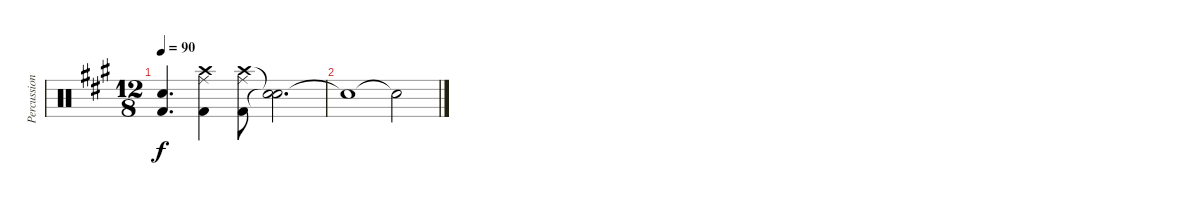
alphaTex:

\track ("Percussion" "Percussion") {instrument percussion}
\staff {score}
\articulation defaults
\ts (12 8)
\tempo 90
\clef neutral
\ks a
("Snare (hit) 2" "Kick (hit) 2").4{d dy f} ("Ride (middle)" "Kick (hit) 2" "Crash high (hit)").4 ("Crash high (hit)" "Kick (hit) 2" "Ride (middle)").8 ("Snare (hit)"{t} "Snare (hit)"{t}).2{d} |
"Snare (hit)"{t}.1 "Snare (hit)"{t}.2
